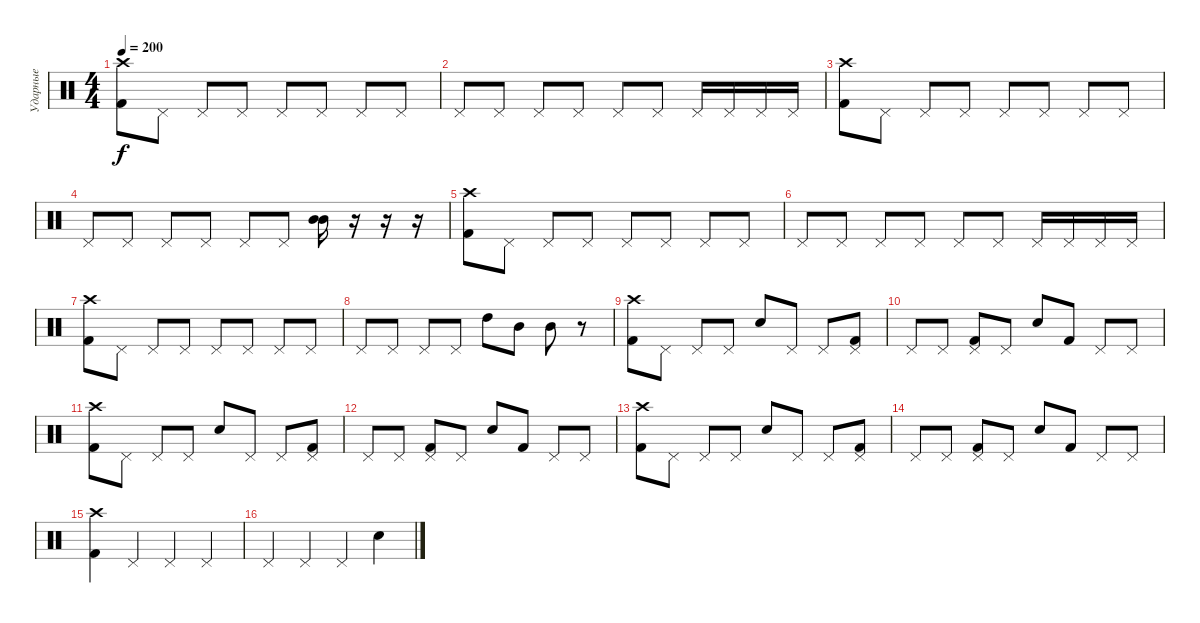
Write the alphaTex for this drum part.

\track ("Ударные" "Ударные") {instrument percussion}
\staff {score}
\articulation defaults
\ts (4 4)
\tempo 200
\clef neutral
\ks c
("Crash high (hit)" "Kick (hit) 2").8{dy f} "Pedal Hi-Hat (hit)".8 "Pedal Hi-Hat (hit)".8 "Pedal Hi-Hat (hit)".8 "Pedal Hi-Hat (hit)".8 "Pedal Hi-Hat (hit)".8 "Pedal Hi-Hat (hit)".8 "Pedal Hi-Hat (hit)".8 |
"Pedal Hi-Hat (hit)".8 "Pedal Hi-Hat (hit)".8 "Pedal Hi-Hat (hit)".8 "Pedal Hi-Hat (hit)".8 "Pedal Hi-Hat (hit)".8 "Pedal Hi-Hat (hit)".8 "Pedal Hi-Hat (hit)".16 "Pedal Hi-Hat (hit)".16 "Pedal Hi-Hat (hit)".16 "Pedal Hi-Hat (hit)".16 |
("Crash high (hit)" "Kick (hit) 2").8 "Pedal Hi-Hat (hit)".8 "Pedal Hi-Hat (hit)".8 "Pedal Hi-Hat (hit)".8 "Pedal Hi-Hat (hit)".8 "Pedal Hi-Hat (hit)".8 "Pedal Hi-Hat (hit)".8 "Pedal Hi-Hat (hit)".8 |
"Pedal Hi-Hat (hit)".8 "Pedal Hi-Hat (hit)".8 "Pedal Hi-Hat (hit)".8 "Pedal Hi-Hat (hit)".8 "Pedal Hi-Hat (hit)".8 "Pedal Hi-Hat (hit)".8 ("Mid Tom (hit)" "Mid Tom (hit)").16 r.16 r.16 r.16 |
("Crash high (hit)" "Kick (hit) 2").8 "Pedal Hi-Hat (hit)".8 "Pedal Hi-Hat (hit)".8 "Pedal Hi-Hat (hit)".8 "Pedal Hi-Hat (hit)".8 "Pedal Hi-Hat (hit)".8 "Pedal Hi-Hat (hit)".8 "Pedal Hi-Hat (hit)".8 |
"Pedal Hi-Hat (hit)".8 "Pedal Hi-Hat (hit)".8 "Pedal Hi-Hat (hit)".8 "Pedal Hi-Hat (hit)".8 "Pedal Hi-Hat (hit)".8 "Pedal Hi-Hat (hit)".8 "Pedal Hi-Hat (hit)".16 "Pedal Hi-Hat (hit)".16 "Pedal Hi-Hat (hit)".16 "Pedal Hi-Hat (hit)".16 |
("Crash high (hit)" "Kick (hit) 2").8 "Pedal Hi-Hat (hit)".8 "Pedal Hi-Hat (hit)".8 "Pedal Hi-Hat (hit)".8 "Pedal Hi-Hat (hit)".8 "Pedal Hi-Hat (hit)".8 "Pedal Hi-Hat (hit)".8 "Pedal Hi-Hat (hit)".8 |
"Pedal Hi-Hat (hit)".8 "Pedal Hi-Hat (hit)".8 "Pedal Hi-Hat (hit)".8 "Pedal Hi-Hat (hit)".8 "High Tom (hit)".8 "Mid Tom (hit)".8 "Mid Tom (hit)".8 r.8 |
("Crash high (hit)" "Kick (hit) 2").8 "Pedal Hi-Hat (hit)".8 "Pedal Hi-Hat (hit)".8 "Pedal Hi-Hat (hit)".8 "Electric Snare (hit)".8 "Pedal Hi-Hat (hit)".8 "Pedal Hi-Hat (hit)".8 ("Pedal Hi-Hat (hit)" "Kick (hit) 2").8 |
"Pedal Hi-Hat (hit)".8 "Pedal Hi-Hat (hit)".8 ("Pedal Hi-Hat (hit)" "Kick (hit) 2").8 "Pedal Hi-Hat (hit)".8 "Electric Snare (hit)".8 "Kick (hit) 2".8 "Pedal Hi-Hat (hit)".8 "Pedal Hi-Hat (hit)".8 |
("Crash high (hit)" "Kick (hit) 2").8 "Pedal Hi-Hat (hit)".8 "Pedal Hi-Hat (hit)".8 "Pedal Hi-Hat (hit)".8 "Electric Snare (hit)".8 "Pedal Hi-Hat (hit)".8 "Pedal Hi-Hat (hit)".8 ("Pedal Hi-Hat (hit)" "Kick (hit) 2").8 |
"Pedal Hi-Hat (hit)".8 "Pedal Hi-Hat (hit)".8 ("Pedal Hi-Hat (hit)" "Kick (hit) 2").8 "Pedal Hi-Hat (hit)".8 "Electric Snare (hit)".8 "Kick (hit) 2".8 "Pedal Hi-Hat (hit)".8 "Pedal Hi-Hat (hit)".8 |
("Crash high (hit)" "Kick (hit) 2").8 "Pedal Hi-Hat (hit)".8 "Pedal Hi-Hat (hit)".8 "Pedal Hi-Hat (hit)".8 "Electric Snare (hit)".8 "Pedal Hi-Hat (hit)".8 "Pedal Hi-Hat (hit)".8 ("Pedal Hi-Hat (hit)" "Kick (hit) 2").8 |
"Pedal Hi-Hat (hit)".8 "Pedal Hi-Hat (hit)".8 ("Pedal Hi-Hat (hit)" "Kick (hit) 2").8 "Pedal Hi-Hat (hit)".8 "Electric Snare (hit)".8 "Kick (hit) 2".8 "Pedal Hi-Hat (hit)".8 "Pedal Hi-Hat (hit)".8 |
("Crash high (hit)" "Kick (hit) 2").4 "Pedal Hi-Hat (hit)".4 "Pedal Hi-Hat (hit)".4 "Pedal Hi-Hat (hit)".4 |
"Pedal Hi-Hat (hit)".4 "Pedal Hi-Hat (hit)".4 "Pedal Hi-Hat (hit)".4 "Electric Snare (hit)".4
